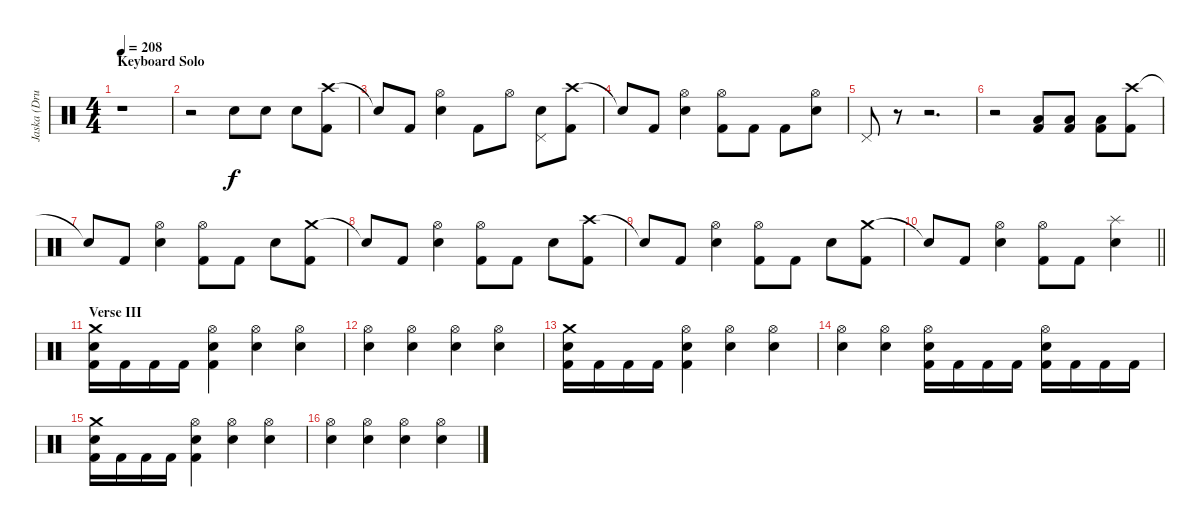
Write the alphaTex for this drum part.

\track ("Jaska (Drums)" "Jaska (Dru") {instrument percussion}
\staff {score}
\articulation defaults
\ts (4 4)
\section ("" "Keyboard Solo")
\tempo 208
\clef neutral
\ks c
r.1{dy f} |
r.2 "Electric Snare (hit)".8 "Electric Snare (hit)".8 "Electric Snare (hit)".8 ("Crash high (hit)" "Kick (hit) 2").8 |
"Snare (hit)"{t}.8 "Kick (hit) 2".8 ("Hi-Hat (open)" "Electric Snare (hit)").4 "Kick (hit) 2".8 "Hi-Hat (open)".8 ("Pedal Hi-Hat (hit)" "Electric Snare (hit)").8 ("Crash high (hit)" "Kick (hit) 2").8 |
"Snare (hit)"{t}.8 "Kick (hit) 2".8 ("Hi-Hat (open)" "Electric Snare (hit)").4 ("Hi-Hat (open)" "Kick (hit) 2").8 "Kick (hit) 2".8 "Kick (hit) 2".8 ("Hi-Hat (open)" "Electric Snare (hit)").8 |
"Pedal Hi-Hat (hit)".8 r.8 r.2{d} |
r.2 ("Low Tom (hit)" "Kick (hit) 2").8 ("Low Tom (hit)" "Kick (hit) 2").8 ("Low Tom (hit)" "Kick (hit) 2").8 ("Crash high (hit)" "Kick (hit) 2").8 |
"Snare (hit)"{t}.8 "Kick (hit) 2".8 ("Hi-Hat (open)" "Electric Snare (hit)").4 ("Hi-Hat (open)" "Kick (hit) 2").8 "Kick (hit) 2".8 "Electric Snare (hit)".8 ("Crash medium (hit)" "Kick (hit) 2").8 |
"Snare (hit)"{t}.8 "Kick (hit) 2".8 ("Hi-Hat (open)" "Electric Snare (hit)").4 ("Hi-Hat (open)" "Kick (hit) 2").8 "Kick (hit) 2".8 "Electric Snare (hit)".8 ("Crash high (hit)" "Kick (hit) 2").8 |
"Snare (hit)"{t}.8 "Kick (hit) 2".8 ("Hi-Hat (open)" "Electric Snare (hit)").4 ("Hi-Hat (open)" "Kick (hit) 2").8 "Kick (hit) 2".8 "Electric Snare (hit)".8 ("Crash medium (hit)" "Kick (hit) 2").8 |
\barLineRight lightlight "Snare (hit)"{t}.8 "Kick (hit) 2".8
("Hi-Hat (open)" "Electric Snare (hit)").4 ("Hi-Hat (open)" "Kick (hit) 2").8 "Kick (hit) 2".8 ("Splash (hit)" "Electric Snare (hit)").4 |
\section ("" "Verse III")
("Crash medium (hit)" "Electric Snare (hit)" "Kick (hit) 2").16 "Kick (hit) 2".16 "Kick (hit) 2".16 "Kick (hit) 2".16 ("Hi-Hat (open)" "Electric Snare (hit)" "Kick (hit) 2").4 ("Hi-Hat (open)" "Electric Snare (hit)").4 ("Hi-Hat (open)" "Electric Snare (hit)").4 |
("Hi-Hat (open)" "Electric Snare (hit)").4 ("Hi-Hat (open)" "Electric Snare (hit)").4 ("Hi-Hat (open)" "Electric Snare (hit)").4 ("Hi-Hat (open)" "Electric Snare (hit)").4 |
("Crash medium (hit)" "Electric Snare (hit)" "Kick (hit) 2").16 "Kick (hit) 2".16 "Kick (hit) 2".16 "Kick (hit) 2".16 ("Hi-Hat (open)" "Electric Snare (hit)" "Kick (hit) 2").4 ("Hi-Hat (open)" "Electric Snare (hit)").4 ("Hi-Hat (open)" "Electric Snare (hit)").4 |
("Hi-Hat (open)" "Electric Snare (hit)").4 ("Hi-Hat (open)" "Electric Snare (hit)").4 ("Hi-Hat (open)" "Electric Snare (hit)" "Kick (hit) 2").16 "Kick (hit) 2".16 "Kick (hit) 2".16 "Kick (hit) 2".16 ("Hi-Hat (open)" "Electric Snare (hit)" "Kick (hit) 2").16 "Kick (hit) 2".16 "Kick (hit) 2".16 "Kick (hit) 2".16 |
("Crash medium (hit)" "Electric Snare (hit)" "Kick (hit) 2").16 "Kick (hit) 2".16 "Kick (hit) 2".16 "Kick (hit) 2".16 ("Hi-Hat (open)" "Electric Snare (hit)" "Kick (hit) 2").4 ("Hi-Hat (open)" "Electric Snare (hit)").4 ("Hi-Hat (open)" "Electric Snare (hit)").4 |
("Hi-Hat (open)" "Electric Snare (hit)").4 ("Hi-Hat (open)" "Electric Snare (hit)").4 ("Hi-Hat (open)" "Electric Snare (hit)").4 ("Hi-Hat (open)" "Electric Snare (hit)").4
